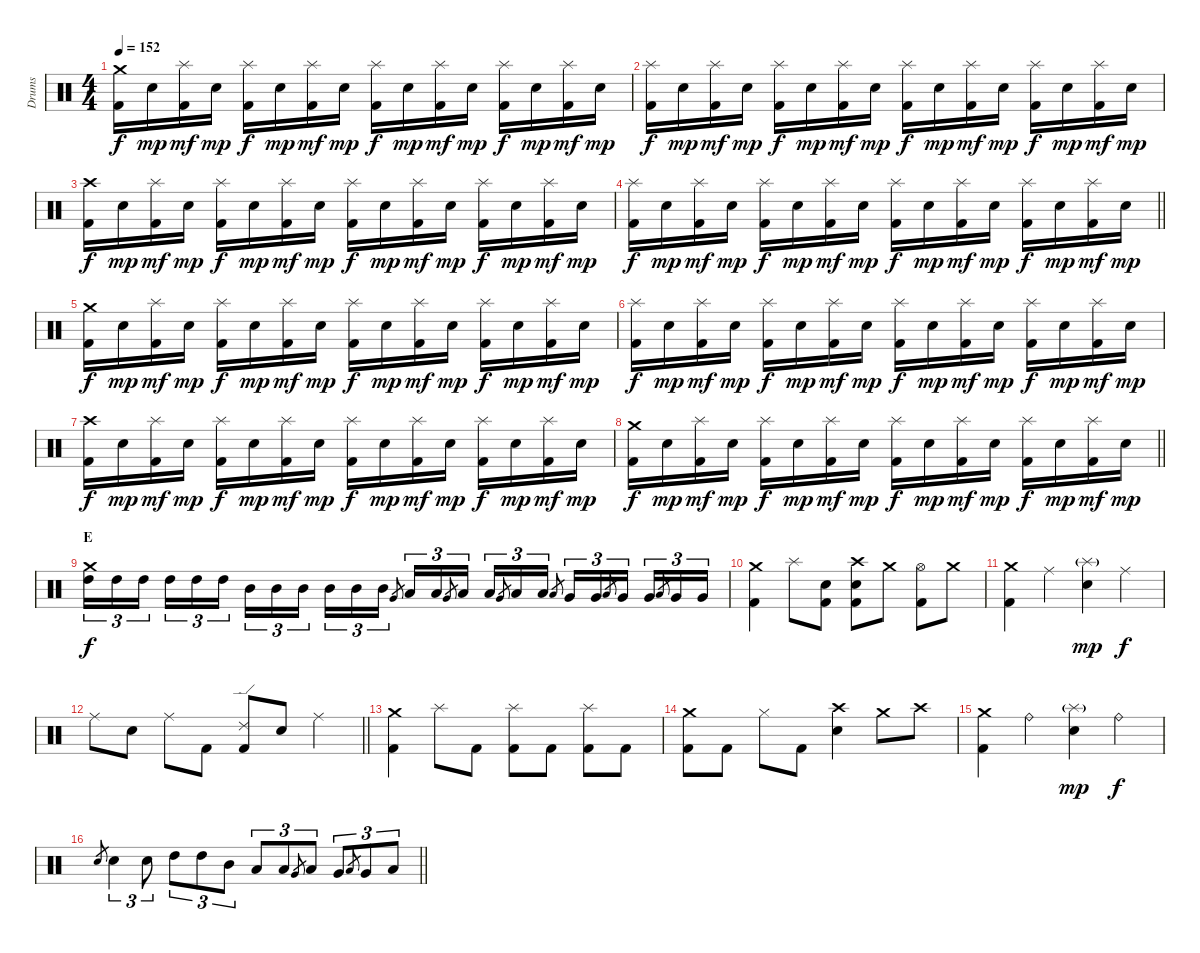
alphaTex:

\track ("Drums" "Drums") {instrument percussion}
\staff {score}
\articulation defaults
\ts (4 4)
\section ("" "")
\tempo 152
\clef neutral
\ks c
("Crash medium (hit)" "Kick (hit) 2").16{dy f} "Electric Snare (hit)".16{dy mp} ("Splash (hit)" "Kick (hit) 2").16{dy mf} "Electric Snare (hit)".16{dy mp} ("Splash (hit)" "Kick (hit) 2").16{dy f} "Electric Snare (hit)".16{dy mp} ("Splash (hit)" "Kick (hit) 2").16{dy mf} "Electric Snare (hit)".16{dy mp} ("Splash (hit)" "Kick (hit) 2").16{dy f} "Electric Snare (hit)".16{dy mp} ("Splash (hit)" "Kick (hit) 2").16{dy mf} "Electric Snare (hit)".16{dy mp} ("Splash (hit)" "Kick (hit) 2").16{dy f} "Electric Snare (hit)".16{dy mp} ("Splash (hit)" "Kick (hit) 2").16{dy mf} "Electric Snare (hit)".16{dy mp} |
("Splash (hit)" "Kick (hit) 2").16{dy f} "Electric Snare (hit)".16{dy mp} ("Splash (hit)" "Kick (hit) 2").16{dy mf} "Electric Snare (hit)".16{dy mp} ("Splash (hit)" "Kick (hit) 2").16{dy f} "Electric Snare (hit)".16{dy mp} ("Splash (hit)" "Kick (hit) 2").16{dy mf} "Electric Snare (hit)".16{dy mp} ("Splash (hit)" "Kick (hit) 2").16{dy f} "Electric Snare (hit)".16{dy mp} ("Splash (hit)" "Kick (hit) 2").16{dy mf} "Electric Snare (hit)".16{dy mp} ("Splash (hit)" "Kick (hit) 2").16{dy f} "Electric Snare (hit)".16{dy mp} ("Splash (hit)" "Kick (hit) 2").16{dy mf} "Electric Snare (hit)".16{dy mp} |
("Crash high (hit)" "Kick (hit) 2").16{dy f} "Electric Snare (hit)".16{dy mp} ("Splash (hit)" "Kick (hit) 2").16{dy mf} "Electric Snare (hit)".16{dy mp} ("Splash (hit)" "Kick (hit) 2").16{dy f} "Electric Snare (hit)".16{dy mp} ("Splash (hit)" "Kick (hit) 2").16{dy mf} "Electric Snare (hit)".16{dy mp} ("Splash (hit)" "Kick (hit) 2").16{dy f} "Electric Snare (hit)".16{dy mp} ("Splash (hit)" "Kick (hit) 2").16{dy mf} "Electric Snare (hit)".16{dy mp} ("Splash (hit)" "Kick (hit) 2").16{dy f} "Electric Snare (hit)".16{dy mp} ("Splash (hit)" "Kick (hit) 2").16{dy mf} "Electric Snare (hit)".16{dy mp} |
\barLineRight lightlight
("Splash (hit)" "Kick (hit) 2").16{dy f} "Electric Snare (hit)".16{dy mp} ("Splash (hit)" "Kick (hit) 2").16{dy mf} "Electric Snare (hit)".16{dy mp} ("Splash (hit)" "Kick (hit) 2").16{dy f} "Electric Snare (hit)".16{dy mp} ("Splash (hit)" "Kick (hit) 2").16{dy mf} "Electric Snare (hit)".16{dy mp} ("Splash (hit)" "Kick (hit) 2").16{dy f} "Electric Snare (hit)".16{dy mp} ("Splash (hit)" "Kick (hit) 2").16{dy mf} "Electric Snare (hit)".16{dy mp} ("Splash (hit)" "Kick (hit) 2").16{dy f} "Electric Snare (hit)".16{dy mp} ("Splash (hit)" "Kick (hit) 2").16{dy mf} "Electric Snare (hit)".16{dy mp} |
\section ("" "")
("Crash medium (hit)" "Kick (hit) 2").16{dy f} "Electric Snare (hit)".16{dy mp} ("Splash (hit)" "Kick (hit) 2").16{dy mf} "Electric Snare (hit)".16{dy mp} ("Splash (hit)" "Kick (hit) 2").16{dy f} "Electric Snare (hit)".16{dy mp} ("Splash (hit)" "Kick (hit) 2").16{dy mf} "Electric Snare (hit)".16{dy mp} ("Splash (hit)" "Kick (hit) 2").16{dy f} "Electric Snare (hit)".16{dy mp} ("Splash (hit)" "Kick (hit) 2").16{dy mf} "Electric Snare (hit)".16{dy mp} ("Splash (hit)" "Kick (hit) 2").16{dy f} "Electric Snare (hit)".16{dy mp} ("Splash (hit)" "Kick (hit) 2").16{dy mf} "Electric Snare (hit)".16{dy mp} |
("Splash (hit)" "Kick (hit) 2").16{dy f} "Electric Snare (hit)".16{dy mp} ("Splash (hit)" "Kick (hit) 2").16{dy mf} "Electric Snare (hit)".16{dy mp} ("Splash (hit)" "Kick (hit) 2").16{dy f} "Electric Snare (hit)".16{dy mp} ("Splash (hit)" "Kick (hit) 2").16{dy mf} "Electric Snare (hit)".16{dy mp} ("Splash (hit)" "Kick (hit) 2").16{dy f} "Electric Snare (hit)".16{dy mp} ("Splash (hit)" "Kick (hit) 2").16{dy mf} "Electric Snare (hit)".16{dy mp} ("Splash (hit)" "Kick (hit) 2").16{dy f} "Electric Snare (hit)".16{dy mp} ("Splash (hit)" "Kick (hit) 2").16{dy mf} "Electric Snare (hit)".16{dy mp} |
("Crash high (hit)" "Kick (hit) 2").16{dy f} "Electric Snare (hit)".16{dy mp} ("Splash (hit)" "Kick (hit) 2").16{dy mf} "Electric Snare (hit)".16{dy mp} ("Splash (hit)" "Kick (hit) 2").16{dy f} "Electric Snare (hit)".16{dy mp} ("Splash (hit)" "Kick (hit) 2").16{dy mf} "Electric Snare (hit)".16{dy mp} ("Splash (hit)" "Kick (hit) 2").16{dy f} "Electric Snare (hit)".16{dy mp} ("Splash (hit)" "Kick (hit) 2").16{dy mf} "Electric Snare (hit)".16{dy mp} ("Splash (hit)" "Kick (hit) 2").16{dy f} "Electric Snare (hit)".16{dy mp} ("Splash (hit)" "Kick (hit) 2").16{dy mf} "Electric Snare (hit)".16{dy mp} |
\barLineRight lightlight
("Crash medium (hit)" "Kick (hit) 2").16{dy f} "Electric Snare (hit)".16{dy mp} ("Splash (hit)" "Kick (hit) 2").16{dy mf} "Electric Snare (hit)".16{dy mp} ("Splash (hit)" "Kick (hit) 2").16{dy f} "Electric Snare (hit)".16{dy mp} ("Splash (hit)" "Kick (hit) 2").16{dy mf} "Electric Snare (hit)".16{dy mp} ("Splash (hit)" "Kick (hit) 2").16{dy f} "Electric Snare (hit)".16{dy mp} ("Splash (hit)" "Kick (hit) 2").16{dy mf} "Electric Snare (hit)".16{dy mp} ("Splash (hit)" "Kick (hit) 2").16{dy f} "Electric Snare (hit)".16{dy mp} ("Splash (hit)" "Kick (hit) 2").16{dy mf} "Electric Snare (hit)".16{dy mp} |
\section ("" "E")
("Crash medium (hit)" "High Tom (hit)").16{tu (3 2) dy f} "High Tom (hit)".16{tu (3 2)} "High Tom (hit)".16{tu (3 2) beam splitsecondary} "High Tom (hit)".16{tu (3 2)} "High Tom (hit)".16{tu (3 2)} "High Tom (hit)".16{tu (3 2)} "Mid Tom (hit)".16{tu (3 2)} "Mid Tom (hit)".16{tu (3 2)} "Mid Tom (hit)".16{tu (3 2) beam splitsecondary} "Mid Tom (hit)".16{tu (3 2)} "Mid Tom (hit)".16{tu (3 2)} "Mid Tom (hit)".16{tu (3 2)} "Very Low Tom (hit)".8{gr} "Low Tom (hit)".16{tu (3 2)} "Low Tom (hit)".16{tu (3 2)} "Very Low Tom (hit)".8{gr} "Low Tom (hit)".16{tu (3 2) beam splitsecondary} "Low Tom (hit)".16{tu (3 2)} "Very Low Tom (hit)".8{gr} "Low Tom (hit)".16{tu (3 2)} "Low Tom (hit)".16{tu (3 2)} "Low Floor Tom (hit)".8{gr} "Very Low Tom (hit)".16{tu (3 2)} "Very Low Tom (hit)".16{tu (3 2)} "Low Floor Tom (hit)".8{gr} "Very Low Tom (hit)".16{tu (3 2) beam splitsecondary} "Very Low Tom (hit)".16{tu (3 2)} "Low Floor Tom (hit)".8{gr} "Very Low Tom (hit)".16{tu (3 2)} "Very Low Tom (hit)".16{tu (3 2)} |
("Crash medium (hit)" "Kick (hit) 2").4 "Splash (hit)".8 ("Electric Snare (hit)" "Kick (hit) 2").8 ("Crash high (hit)" "Electric Snare (hit)" "Kick (hit) 2").8 "Crash medium (hit)".8 ("Hi-Hat (open)" "Kick (hit) 2").8 "Crash medium (hit)".8 |
("Crash medium (hit)" "Kick (hit) 2").4 "Ride (middle)".4 ("Splash (hit)"{g} "Electric Snare (hit)").4{dy mp} "Ride (middle)".4{dy f} |
\barLineRight lightlight "Ride (middle)".8 "Electric Snare (hit)".8 "Ride (middle)".8 "Kick (hit) 2".8
("Ride (edge) 2" "Kick (hit) 2").8 "Electric Snare (hit)".8 "Ride (middle)".4 |
\section ("" "")
("Crash medium (hit)" "Kick (hit) 2").4 "Splash (hit)".8 "Kick (hit) 2".8 ("Splash (hit)" "Kick (hit) 2").8 "Kick (hit) 2".8 ("Splash (hit)" "Kick (hit) 2").8 "Kick (hit) 2".8 |
("Crash medium (hit)" "Kick (hit) 2").8 "Kick (hit) 2".8 "Hi-Hat (closed)".8 "Kick (hit) 2".8 ("Crash high (hit)" "Electric Snare (hit)").4 "Crash medium (hit)".8 "Crash high (hit)".8 |
("Crash medium (hit)" "Kick (hit) 2").4 "Ride (bell)".4 ("Splash (hit)"{g} "Electric Snare (hit)").4{dy mp} "Ride (bell)".4{dy f} |
\barLineRight lightlight "Electric Snare (hit)".8{gr} "Electric Snare (hit)".4{tu (3 2)} "Electric Snare (hit)".8{tu (3 2)} "High Tom (hit)".8{tu (3 2)} "High Tom (hit)".8{tu (3 2)} "Mid Tom (hit)".8{tu (3 2)} "Low Tom (hit)".8{tu (3 2)} "Low Tom (hit)".8{tu (3 2)} "Very Low Tom (hit)".8{gr} "Low Tom (hit)".8{tu (3 2)} "Very Low Tom (hit)".8{tu (3 2)} "Low Floor Tom (hit)".8{gr} "Very Low Tom (hit)".8{tu (3 2)} "Low Floor Tom (hit)".8{tu (3 2)}
